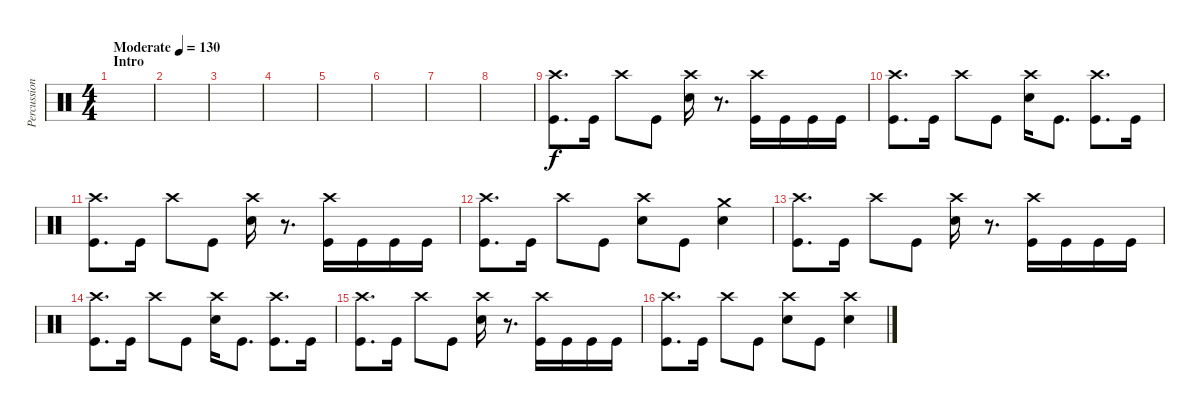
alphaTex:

\track ("Percussion" "Percussion") {instrument percussion}
\staff {score}
\articulation defaults
\ts (4 4)
\section ("" "Intro")
\tempo (130 "Moderate")
\clef neutral
\ks c
|
|
|
|
|
|
|
|
("Crash high (hit)" "Kick (hit)").8{d} "Kick (hit)".16 "Crash high (hit)".8 "Kick (hit)".8 ("Crash high (hit)" "Snare (hit) 2").16 r.8{d} ("Crash high (hit)" "Kick (hit)").16 "Kick (hit)".16 "Kick (hit)".16 "Kick (hit)".16 |
("Crash high (hit)" "Kick (hit)").8{d} "Kick (hit)".16 "Crash high (hit)".8 "Kick (hit)".8 ("Crash high (hit)" "Snare (hit) 2").16 "Kick (hit)".8{d} ("Crash high (hit)" "Kick (hit)").8{d} "Kick (hit)".16 |
("Crash high (hit)" "Kick (hit)").8{d} "Kick (hit)".16 "Crash high (hit)".8 "Kick (hit)".8 ("Crash high (hit)" "Snare (hit) 2").16 r.8{d} ("Crash high (hit)" "Kick (hit)").16 "Kick (hit)".16 "Kick (hit)".16 "Kick (hit)".16 |
("Crash high (hit)" "Kick (hit)").8{d} "Kick (hit)".16 "Crash high (hit)".8 "Kick (hit)".8 ("Crash high (hit)" "Snare (hit) 2").8 "Kick (hit)".8 ("Crash medium (hit)" "Snare (hit) 2").4 |
("Crash high (hit)" "Kick (hit)").8{d} "Kick (hit)".16 "Crash high (hit)".8 "Kick (hit)".8 ("Crash high (hit)" "Snare (hit) 2").16 r.8{d} ("Crash high (hit)" "Kick (hit)").16 "Kick (hit)".16 "Kick (hit)".16 "Kick (hit)".16 |
("Crash high (hit)" "Kick (hit)").8{d} "Kick (hit)".16 "Crash high (hit)".8 "Kick (hit)".8 ("Crash high (hit)" "Snare (hit) 2").16 "Kick (hit)".8{d} ("Crash high (hit)" "Kick (hit)").8{d} "Kick (hit)".16 |
("Crash high (hit)" "Kick (hit)").8{d} "Kick (hit)".16 "Crash high (hit)".8 "Kick (hit)".8 ("Crash high (hit)" "Snare (hit) 2").16 r.8{d} ("Crash high (hit)" "Kick (hit)").16 "Kick (hit)".16 "Kick (hit)".16 "Kick (hit)".16 |
("Crash high (hit)" "Kick (hit)").8{d} "Kick (hit)".16 "Crash high (hit)".8 "Kick (hit)".8 ("Crash high (hit)" "Snare (hit) 2").8 "Kick (hit)".8 ("Crash high (hit)" "Snare (hit) 2").4
